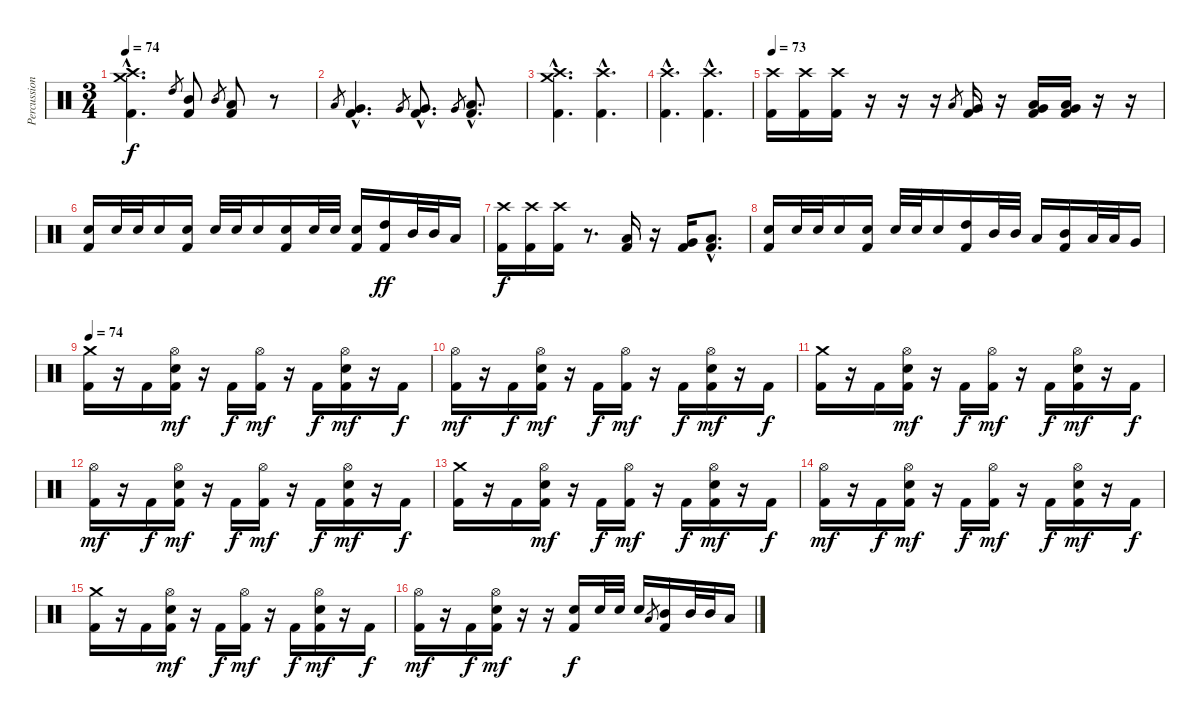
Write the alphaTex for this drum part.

\track ("Percussion" "Percussion") {instrument percussion}
\staff {score}
\articulation defaults
\ts (3 4)
\tempo 74
\clef neutral
\ks c
("Crash high (hit)"{hac} "Crash medium (hit)"{hac} "Kick (hit) 2"{hac}).4{d dy f} "High Tom (hit)".8{gr} ("Mid Tom (hit)" "Kick (hit) 2").8 "Mid Tom (hit)".8{gr} ("Low Tom (hit)" "Kick (hit) 2").8 r.8 |
"Low Tom (hit)".8{gr} ("Very Low Tom (hit)"{hac} "Kick (hit) 2"{hac}).4{d} "Very Low Tom (hit)".8{gr} ("Very Low Tom (hit)"{hac} "Kick (hit) 2"{hac}).8{d} "Very Low Tom (hit)".8{gr} ("Low Floor Tom (hit)"{hac} "Kick (hit) 2"{hac}).8{d} |
("Crash high (hit)"{hac} "Crash medium (hit)"{hac} "Kick (hit) 2"{hac}).4{d} ("Crash high (hit)"{hac} "Kick (hit) 2"{hac}).4{d} |
("Crash high (hit)"{hac} "Kick (hit) 2"{hac}).4{d} ("Crash high (hit)"{hac} "Kick (hit) 2"{hac}).4{d} |
\tempo 73
("Crash high (hit)" "Kick (hit) 2").16 ("Crash high (hit)" "Kick (hit) 2").16 ("Crash high (hit)" "Kick (hit) 2").16 r.16 r.16 r.16 "Low Tom (hit)".8{gr} ("Very Low Tom (hit)" "Kick (hit) 2").16 r.16 ("Low Tom (hit)" "Very Low Tom (hit)" "Kick (hit) 2").16 ("Low Tom (hit)" "Very Low Tom (hit)" "Kick (hit) 2").16 r.16 r.16 |
("Electric Snare (hit)" "Kick (hit) 2").16 "Electric Snare (hit)".32 "Electric Snare (hit)".32 "Electric Snare (hit)".16 ("Electric Snare (hit)" "Kick (hit) 2").16 "Electric Snare (hit)".32 "Electric Snare (hit)".32 "Electric Snare (hit)".16 ("Electric Snare (hit)" "Kick (hit) 2").16 "Electric Snare (hit)".32 "Electric Snare (hit)".32 ("Electric Snare (hit)" "Kick (hit) 2").16 ("High Tom (hit)" "Kick (hit) 2").16{dy ff} "Mid Tom (hit)".32 "Mid Tom (hit)".32 "Low Tom (hit)".16 |
("Crash high (hit)" "Kick (hit) 2").16{dy f} ("Crash high (hit)" "Kick (hit) 2").16 ("Crash high (hit)" "Kick (hit) 2").16 r.8{d} ("Low Tom (hit)" "Kick (hit) 2").16 r.16 ("Very Low Tom (hit)" "Kick (hit) 2").16 ("Low Floor Tom (hit)"{hac} "Kick (hit) 2"{hac}).8{d} |
("Electric Snare (hit)" "Kick (hit) 2").16 "Electric Snare (hit)".32 "Electric Snare (hit)".32 "Electric Snare (hit)".16 ("Electric Snare (hit)" "Kick (hit) 2").16 "Electric Snare (hit)".32 "Electric Snare (hit)".32 "Electric Snare (hit)".16 ("High Tom (hit)" "Kick (hit) 2").16 "Mid Tom (hit)".32 "Mid Tom (hit)".32 "Low Tom (hit)".16 ("Mid Tom (hit)" "Kick (hit) 2").16 "Low Tom (hit)".32 "Low Tom (hit)".32 "Very Low Tom (hit)".16 |
\tempo 74
("Crash medium (hit)" "Kick (hit) 2").16 r.16 "Kick (hit) 2".16 ("Hi-Hat (open)" "Electric Snare (hit)" "Kick (hit) 2").16{dy mf} r.16 "Kick (hit) 2".16{dy f} ("Hi-Hat (open)" "Kick (hit) 2").16{dy mf} r.16 "Kick (hit) 2".16{dy f} ("Hi-Hat (open)" "Electric Snare (hit)" "Kick (hit) 2").16{dy mf} r.16 "Kick (hit) 2".16{dy f} |
("Hi-Hat (open)" "Kick (hit) 2").16{dy mf} r.16 "Kick (hit) 2".16{dy f} ("Hi-Hat (open)" "Electric Snare (hit)" "Kick (hit) 2").16{dy mf} r.16 "Kick (hit) 2".16{dy f} ("Hi-Hat (open)" "Kick (hit) 2").16{dy mf} r.16 "Kick (hit) 2".16{dy f} ("Hi-Hat (open)" "Electric Snare (hit)" "Kick (hit) 2").16{dy mf} r.16 "Kick (hit) 2".16{dy f} |
("Crash medium (hit)" "Kick (hit) 2").16 r.16 "Kick (hit) 2".16 ("Hi-Hat (open)" "Electric Snare (hit)" "Kick (hit) 2").16{dy mf} r.16 "Kick (hit) 2".16{dy f} ("Hi-Hat (open)" "Kick (hit) 2").16{dy mf} r.16 "Kick (hit) 2".16{dy f} ("Hi-Hat (open)" "Electric Snare (hit)" "Kick (hit) 2").16{dy mf} r.16 "Kick (hit) 2".16{dy f} |
("Hi-Hat (open)" "Kick (hit) 2").16{dy mf} r.16 "Kick (hit) 2".16{dy f} ("Hi-Hat (open)" "Electric Snare (hit)" "Kick (hit) 2").16{dy mf} r.16 "Kick (hit) 2".16{dy f} ("Hi-Hat (open)" "Kick (hit) 2").16{dy mf} r.16 "Kick (hit) 2".16{dy f} ("Hi-Hat (open)" "Electric Snare (hit)" "Kick (hit) 2").16{dy mf} r.16 "Kick (hit) 2".16{dy f} |
("Crash medium (hit)" "Kick (hit) 2").16 r.16 "Kick (hit) 2".16 ("Hi-Hat (open)" "Electric Snare (hit)" "Kick (hit) 2").16{dy mf} r.16 "Kick (hit) 2".16{dy f} ("Hi-Hat (open)" "Kick (hit) 2").16{dy mf} r.16 "Kick (hit) 2".16{dy f} ("Hi-Hat (open)" "Electric Snare (hit)" "Kick (hit) 2").16{dy mf} r.16 "Kick (hit) 2".16{dy f} |
("Hi-Hat (open)" "Kick (hit) 2").16{dy mf} r.16 "Kick (hit) 2".16{dy f} ("Hi-Hat (open)" "Electric Snare (hit)" "Kick (hit) 2").16{dy mf} r.16 "Kick (hit) 2".16{dy f} ("Hi-Hat (open)" "Kick (hit) 2").16{dy mf} r.16 "Kick (hit) 2".16{dy f} ("Hi-Hat (open)" "Electric Snare (hit)" "Kick (hit) 2").16{dy mf} r.16 "Kick (hit) 2".16{dy f} |
("Crash medium (hit)" "Kick (hit) 2").16 r.16 "Kick (hit) 2".16 ("Hi-Hat (open)" "Electric Snare (hit)" "Kick (hit) 2").16{dy mf} r.16 "Kick (hit) 2".16{dy f} ("Hi-Hat (open)" "Kick (hit) 2").16{dy mf} r.16 "Kick (hit) 2".16{dy f} ("Hi-Hat (open)" "Electric Snare (hit)" "Kick (hit) 2").16{dy mf} r.16 "Kick (hit) 2".16{dy f} |
("Hi-Hat (open)" "Kick (hit) 2").16{dy mf} r.16 "Kick (hit) 2".16{dy f} ("Hi-Hat (open)" "Electric Snare (hit)" "Kick (hit) 2").16{dy mf} r.16 r.16 ("Electric Snare (hit)" "Kick (hit) 2").16{dy f} "Electric Snare (hit)".32 "Electric Snare (hit)".32 "Electric Snare (hit)".16 "Low Tom (hit)".8{gr} ("Mid Tom (hit)" "Kick (hit) 2").16 "Mid Tom (hit)".32 "Mid Tom (hit)".32 "Low Tom (hit)".16
